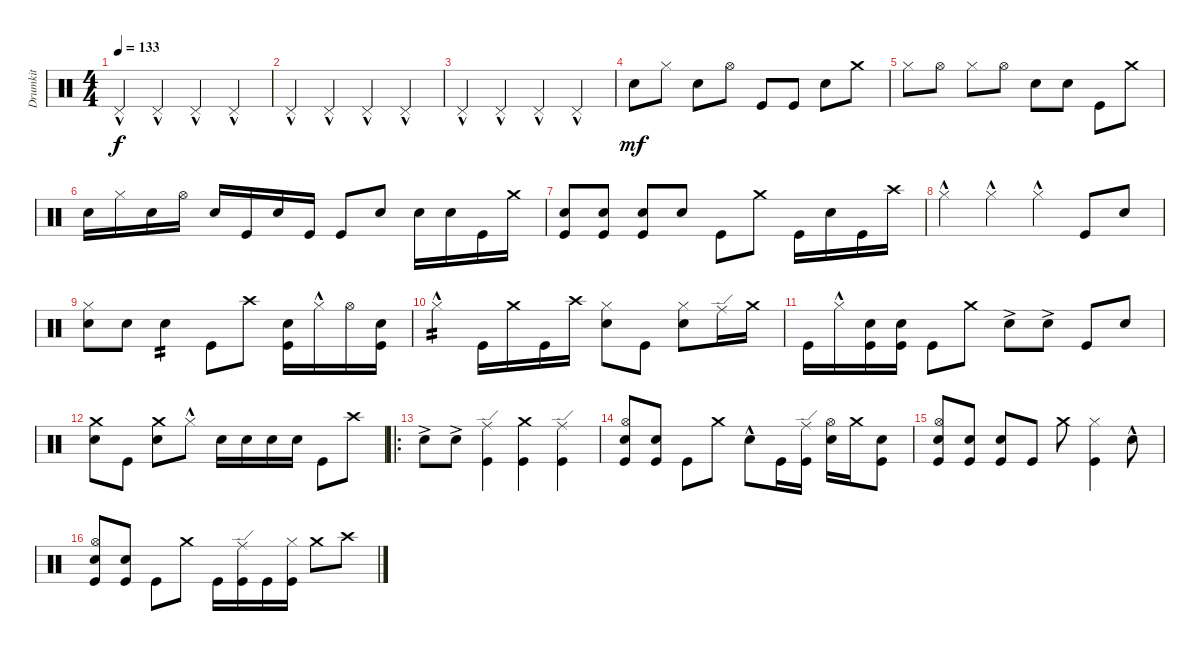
\track ("Drumkit" "Drumkit") {instrument percussion}
\staff {score}
\articulation defaults
\ts (4 4)
\tempo 133
\clef neutral
\ks c "Pedal Hi-Hat (hit)"{hac}.4{dy f} "Pedal Hi-Hat (hit)"{hac}.4 "Pedal Hi-Hat (hit)"{hac}.4 "Pedal Hi-Hat (hit)"{hac}.4
|
"Pedal Hi-Hat (hit)"{hac}.4 "Pedal Hi-Hat (hit)"{hac}.4 "Pedal Hi-Hat (hit)"{hac}.4 "Pedal Hi-Hat (hit)"{hac}.4 |
"Pedal Hi-Hat (hit)"{hac}.4 "Pedal Hi-Hat (hit)"{hac}.4 "Pedal Hi-Hat (hit)"{hac}.4 "Pedal Hi-Hat (hit)"{hac}.4 |
"Snare (hit) 2".8{dy mf} "Hi-Hat (closed)".8 "Snare (hit) 2".8 "Hi-Hat (open)".8 "Kick (hit)".8 "Kick (hit)".8 "Snare (hit) 2".8 "Crash medium (hit)".8 |
"Hi-Hat (closed)".8 "Hi-Hat (open)".8 "Hi-Hat (closed)".8 "Hi-Hat (open)".8 "Snare (hit) 2".8 "Snare (hit) 2".8 "Kick (hit)".8 "Crash medium (hit)".8 |
"Snare (hit) 2".16 "Hi-Hat (closed)".16 "Snare (hit) 2".16 "Hi-Hat (open)".16 "Snare (hit) 2".16 "Kick (hit)".16 "Snare (hit) 2".16 "Kick (hit)".16 "Kick (hit)".8 "Snare (hit) 2".8 "Snare (hit) 2".16 "Snare (hit) 2".16 "Kick (hit)".16 "Crash medium (hit)".16 |
("Snare (hit) 2" "Kick (hit)").8 ("Snare (hit) 2" "Kick (hit)").8 ("Snare (hit) 2" "Kick (hit)").8 "Snare (hit) 2".8 "Kick (hit)".8 "Crash medium (hit)".8 "Kick (hit)".16 "Snare (hit) 2".16 "Kick (hit)".16 "Crash high (hit)".16 |
"Hi-Hat (closed)"{hac}.4 "Hi-Hat (closed)"{hac}.4 "Hi-Hat (closed)"{hac}.4 "Kick (hit)".8 "Snare (hit) 2".8 |
("Snare (hit) 2" "Hi-Hat (closed)").8 "Snare (hit) 2".8 "Snare (hit) 2".4{tp 2} "Kick (hit)".8 "Crash high (hit)".8 ("Kick (hit)" "Snare (hit) 2").16 "Hi-Hat (closed)"{hac}.16 "Hi-Hat (open)".16 ("Snare (hit) 2" "Kick (hit)").16 |
"Hi-Hat (closed)"{hac}.4{tp 2} "Kick (hit)".16 "Crash medium (hit)".16 "Kick (hit)".16 "Crash high (hit)".16 ("Snare (hit) 2" "Hi-Hat (closed)").8 "Kick (hit)".8 ("Snare (hit) 2" "Hi-Hat (closed)").8 "Ride (edge)".16 "Crash medium (hit)".16 |
"Kick (hit)".16 "Hi-Hat (closed)"{hac}.16 ("Snare (hit) 2" "Kick (hit)").16 ("Kick (hit)" "Snare (hit) 2").16 "Kick (hit)".8 "Crash medium (hit)".8 "Snare (hit) 2"{ac}.8 "Snare (hit) 2"{ac}.8 "Kick (hit)".8 "Snare (hit) 2".8 |
("Crash medium (hit)" "Snare (hit) 2").8 "Kick (hit)".8 ("Crash medium (hit)" "Snare (hit) 2").8 "Hi-Hat (closed)"{hac}.8 "Snare (hit) 2".16 "Snare (hit) 2".16 "Snare (hit) 2".16 "Snare (hit) 2".16 "Kick (hit)".8 "Crash high (hit)".8 |
\ro "Snare (hit) 2"{ac}.8 "Snare (hit) 2"{ac}.8
("Kick (hit)" "Ride (edge)").4 ("Kick (hit)" "Crash medium (hit)").4 ("Kick (hit)" "Ride (edge)").4 |
("Kick (hit)" "Snare (hit) 2" "Hi-Hat (open)").8 ("Kick (hit)" "Snare (hit) 2").8 "Kick (hit)".8 "Crash medium (hit)".8 "Snare (hit) 2"{hac}.8 "Kick (hit)".16 ("Kick (hit)" "Ride (edge)").16 ("Snare (hit) 2" "Hi-Hat (open)").16 "Crash medium (hit)".16 ("Snare (hit) 2" "Kick (hit)").8 |
("Snare (hit) 2" "Kick (hit)" "Hi-Hat (open)").8 ("Kick (hit)" "Snare (hit) 2").8 ("Kick (hit)" "Snare (hit) 2").8 "Kick (hit)".8 "Crash medium (hit)".8 ("Kick (hit)" "Hi-Hat (closed)").4 "Snare (hit) 2"{hac}.8 |
("Snare (hit) 2" "Kick (hit)" "Hi-Hat (open)").8 ("Kick (hit)" "Snare (hit) 2").8 "Kick (hit)".8 "Crash medium (hit)".8 "Kick (hit)".16 ("Kick (hit)" "Ride (edge)").16 "Kick (hit)".16 ("Kick (hit)" "Hi-Hat (closed)").16 "Crash medium (hit)".8 "Crash high (hit)".8
